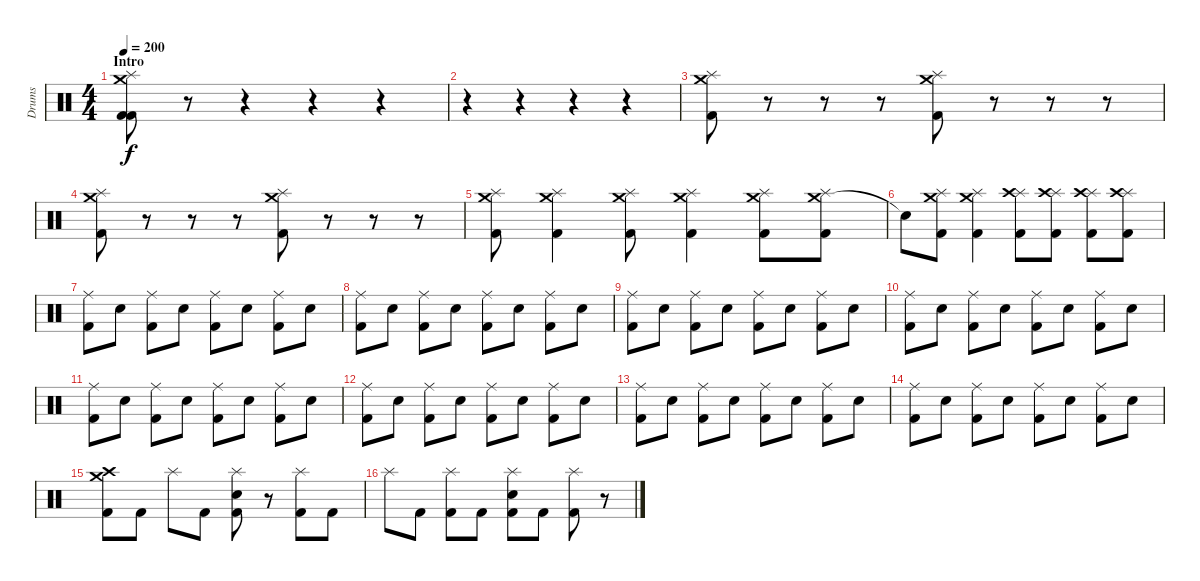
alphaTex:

\track ("Drums" "Drums") {instrument percussion}
\staff {score}
\articulation defaults
\ts (4 4)
\section ("" "Intro")
\tempo 200
\clef neutral
\ks c
("Crash medium (hit)" "Splash (hit)" "Kick (hit) 2" "Kick (hit) 2").8{dy f} r.8 r.4 r.4 r.4 |
r.4 r.4 r.4 r.4 |
("Crash medium (hit)" "Splash (hit)" "Kick (hit) 2").8 r.8 r.8 r.8 ("Crash medium (hit)" "Splash (hit)" "Kick (hit) 2").8 r.8 r.8 r.8 |
("Crash medium (hit)" "Splash (hit)" "Kick (hit) 2").8 r.8 r.8 r.8 ("Crash medium (hit)" "Splash (hit)" "Kick (hit) 2").8 r.8 r.8 r.8 |
("Crash medium (hit)" "Splash (hit)" "Kick (hit) 2").8 ("Crash medium (hit)" "Splash (hit)" "Kick (hit) 2").4 ("Crash medium (hit)" "Splash (hit)" "Kick (hit) 2").8 ("Crash medium (hit)" "Splash (hit)" "Kick (hit) 2").4 ("Crash medium (hit)" "Splash (hit)" "Kick (hit) 2").8 ("Crash medium (hit)" "Splash (hit)" "Kick (hit) 2").8 |
"Snare (hit)"{t}.8 ("Crash medium (hit)" "Splash (hit)" "Kick (hit) 2").8 ("Crash medium (hit)" "Splash (hit)" "Kick (hit) 2").4 ("Splash (hit)" "Crash high (hit)" "Kick (hit) 2").8 ("Splash (hit)" "Crash high (hit)" "Kick (hit) 2").8 ("Splash (hit)" "Crash high (hit)" "Kick (hit) 2").8 ("Splash (hit)" "Crash high (hit)" "Kick (hit) 2").8 |
("Ride (middle)" "Kick (hit) 2").8 "Snare (hit) 2".8 ("Ride (middle)" "Kick (hit) 2").8 "Snare (hit) 2".8 ("Ride (middle)" "Kick (hit) 2").8 "Snare (hit) 2".8 ("Ride (middle)" "Kick (hit) 2").8 "Snare (hit) 2".8 |
("Ride (middle)" "Kick (hit) 2").8 "Snare (hit) 2".8 ("Ride (middle)" "Kick (hit) 2").8 "Snare (hit) 2".8 ("Ride (middle)" "Kick (hit) 2").8 "Snare (hit) 2".8 ("Ride (middle)" "Kick (hit) 2").8 "Snare (hit) 2".8 |
("Ride (middle)" "Kick (hit) 2").8 "Snare (hit) 2".8 ("Ride (middle)" "Kick (hit) 2").8 "Snare (hit) 2".8 ("Ride (middle)" "Kick (hit) 2").8 "Snare (hit) 2".8 ("Ride (middle)" "Kick (hit) 2").8 "Snare (hit) 2".8 |
("Ride (middle)" "Kick (hit) 2").8 "Snare (hit) 2".8 ("Ride (middle)" "Kick (hit) 2").8 "Snare (hit) 2".8 ("Ride (middle)" "Kick (hit) 2").8 "Snare (hit) 2".8 ("Ride (middle)" "Kick (hit) 2").8 "Snare (hit) 2".8 |
("Ride (middle)" "Kick (hit) 2").8 "Snare (hit) 2".8 ("Ride (middle)" "Kick (hit) 2").8 "Snare (hit) 2".8 ("Ride (middle)" "Kick (hit) 2").8 "Snare (hit) 2".8 ("Ride (middle)" "Kick (hit) 2").8 "Snare (hit) 2".8 |
("Ride (middle)" "Kick (hit) 2").8 "Snare (hit) 2".8 ("Ride (middle)" "Kick (hit) 2").8 "Snare (hit) 2".8 ("Ride (middle)" "Kick (hit) 2").8 "Snare (hit) 2".8 ("Ride (middle)" "Kick (hit) 2").8 "Snare (hit) 2".8 |
("Ride (middle)" "Kick (hit) 2").8 "Snare (hit) 2".8 ("Ride (middle)" "Kick (hit) 2").8 "Snare (hit) 2".8 ("Ride (middle)" "Kick (hit) 2").8 "Snare (hit) 2".8 ("Ride (middle)" "Kick (hit) 2").8 "Snare (hit) 2".8 |
("Ride (middle)" "Kick (hit) 2").8 "Snare (hit) 2".8 ("Ride (middle)" "Kick (hit) 2").8 "Snare (hit) 2".8 ("Ride (middle)" "Kick (hit) 2").8 "Snare (hit) 2".8 ("Ride (middle)" "Kick (hit) 2").8 "Snare (hit) 2".8 |
("Crash medium (hit)" "Crash high (hit)" "Kick (hit) 2").8 "Kick (hit) 2".8 "Splash (hit)".8 "Kick (hit) 2".8 ("Splash (hit)" "Snare (hit) 2" "Kick (hit) 2").8 r.8 ("Splash (hit)" "Kick (hit) 2").8 "Kick (hit) 2".8 |
"Splash (hit)".8 "Kick (hit) 2".8 ("Splash (hit)" "Kick (hit) 2").8 "Kick (hit) 2".8 ("Splash (hit)" "Snare (hit) 2" "Kick (hit) 2").8 "Kick (hit) 2".8 ("Splash (hit)" "Kick (hit) 2").8 r.8
